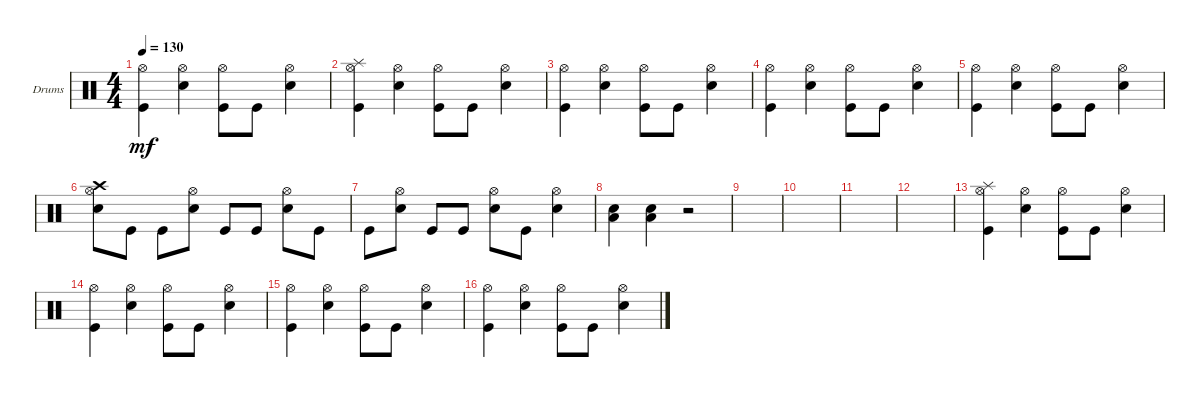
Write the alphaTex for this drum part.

\defaultSystemsLayout 4
\bracketExtendMode groupsimilarinstruments
\firstSystemTrackNameOrientation horizontal
\otherSystemsTrackNameOrientation horizontal
\track ("Drumkit" "Drums") {instrument percussion}
\staff {score}
\articulation defaults
\ts (4 4)
\tempo 130
\clef neutral
\ks c
("Hi-Hat (open)" "Kick (hit)").4{dy mf} ("Snare (hit) 2" "Hi-Hat (open)").4 ("Kick (hit)" "Hi-Hat (open)").8 "Kick (hit)".8 ("Snare (hit) 2" "Hi-Hat (open)").4 |
("Splash (hit)" "Hi-Hat (open)" "Kick (hit)").4 ("Snare (hit) 2" "Hi-Hat (open)").4 ("Kick (hit)" "Hi-Hat (open)").8 "Kick (hit)".8 ("Snare (hit) 2" "Hi-Hat (open)").4 |
("Hi-Hat (open)" "Kick (hit)").4 ("Snare (hit) 2" "Hi-Hat (open)").4 ("Kick (hit)" "Hi-Hat (open)").8 "Kick (hit)".8 ("Snare (hit) 2" "Hi-Hat (open)").4 |
("Hi-Hat (open)" "Kick (hit)").4 ("Snare (hit) 2" "Hi-Hat (open)").4 ("Kick (hit)" "Hi-Hat (open)").8 "Kick (hit)".8 ("Snare (hit) 2" "Hi-Hat (open)").4 |
("Hi-Hat (open)" "Kick (hit)").4 ("Snare (hit) 2" "Hi-Hat (open)").4 ("Kick (hit)" "Hi-Hat (open)").8 "Kick (hit)".8 ("Snare (hit) 2" "Hi-Hat (open)").4 |
("Snare (hit) 2" "Hi-Hat (open)" "Crash high (hit)").8 "Kick (hit)".8 "Kick (hit)".8 ("Snare (hit) 2" "Hi-Hat (open)").8 "Kick (hit)".8 "Kick (hit)".8 ("Snare (hit) 2" "Hi-Hat (open)").8 "Kick (hit)".8 |
"Kick (hit)".8 ("Snare (hit) 2" "Hi-Hat (open)").8 "Kick (hit)".8 "Kick (hit)".8 ("Snare (hit) 2" "Hi-Hat (open)").8 "Kick (hit)".8 ("Snare (hit) 2" "Hi-Hat (open)").4 |
("Snare (hit) 2" "Low Tom (hit)").4 ("Snare (hit) 2" "Low Tom (hit)").4 r.2 |
|
|
|
|
("Splash (hit)" "Hi-Hat (open)" "Kick (hit)").4 ("Snare (hit) 2" "Hi-Hat (open)").4 ("Kick (hit)" "Hi-Hat (open)").8 "Kick (hit)".8 ("Snare (hit) 2" "Hi-Hat (open)").4 |
("Hi-Hat (open)" "Kick (hit)").4 ("Snare (hit) 2" "Hi-Hat (open)").4 ("Kick (hit)" "Hi-Hat (open)").8 "Kick (hit)".8 ("Snare (hit) 2" "Hi-Hat (open)").4 |
("Hi-Hat (open)" "Kick (hit)").4 ("Snare (hit) 2" "Hi-Hat (open)").4 ("Kick (hit)" "Hi-Hat (open)").8 "Kick (hit)".8 ("Snare (hit) 2" "Hi-Hat (open)").4 |
("Hi-Hat (open)" "Kick (hit)").4 ("Snare (hit) 2" "Hi-Hat (open)").4 ("Kick (hit)" "Hi-Hat (open)").8 "Kick (hit)".8 ("Snare (hit) 2" "Hi-Hat (open)").4
